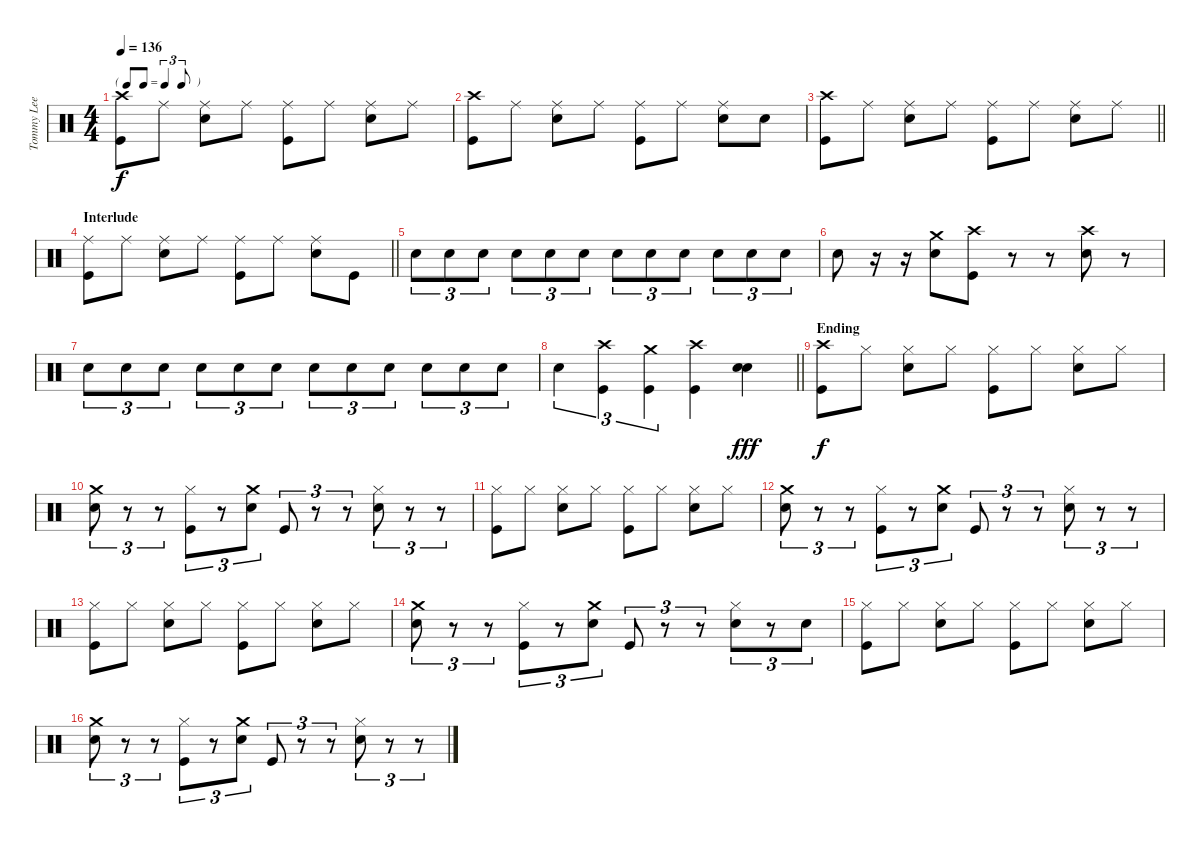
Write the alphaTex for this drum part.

\track ("Tommy Lee" "Tommy Lee") {instrument percussion}
\staff {score}
\articulation defaults
\ts (4 4)
\tf triplet8th
\tempo 136
\clef neutral
\ks c
("Crash high (hit)" "Kick (hit)").8{dy f} "Ride (middle)".8 ("Ride (middle)" "Snare (hit) 2").8 "Ride (middle)".8 ("Ride (middle)" "Kick (hit)").8 "Ride (middle)".8 ("Ride (middle)" "Snare (hit) 2").8 "Ride (middle)".8 |
("Crash high (hit)" "Kick (hit)").8 "Ride (middle)".8 ("Ride (middle)" "Snare (hit) 2").8 "Ride (middle)".8 ("Ride (middle)" "Kick (hit)").8 "Ride (middle)".8 ("Ride (middle)" "Snare (hit) 2").8 "Snare (hit) 2".8 |
\barLineRight lightlight
("Crash high (hit)" "Kick (hit)").8 "Ride (middle)".8 ("Ride (middle)" "Snare (hit) 2").8 "Ride (middle)".8 ("Ride (middle)" "Kick (hit)").8 "Ride (middle)".8 ("Ride (middle)" "Snare (hit) 2").8 "Ride (middle)".8 |
\section ("" "Interlude")
\barLineRight lightlight
("Ride (middle)" "Kick (hit)").8 "Ride (middle)".8 ("Ride (middle)" "Snare (hit) 2").8 "Ride (middle)".8 ("Ride (middle)" "Kick (hit)").8 "Ride (middle)".8 ("Ride (middle)" "Snare (hit) 2").8 "Kick (hit)".8 |
"Snare (hit) 2".8{tu (3 2)} "Snare (hit) 2".8{tu (3 2)} "Snare (hit) 2".8{tu (3 2)} "Snare (hit) 2".8{tu (3 2)} "Snare (hit) 2".8{tu (3 2)} "Snare (hit) 2".8{tu (3 2)} "Snare (hit) 2".8{tu (3 2)} "Snare (hit) 2".8{tu (3 2)} "Snare (hit) 2".8{tu (3 2)} "Snare (hit) 2".8{tu (3 2)} "Snare (hit) 2".8{tu (3 2)} "Snare (hit) 2".8{tu (3 2)} |
"Snare (hit) 2".8 r.16 r.16 ("Crash medium (hit)" "Snare (hit) 2").8 ("Crash high (hit)" "Kick (hit)").8 r.8 r.8 ("Crash high (hit)" "Snare (hit) 2").8 r.8 |
"Snare (hit) 2".8{tu (3 2)} "Snare (hit) 2".8{tu (3 2)} "Snare (hit) 2".8{tu (3 2)} "Snare (hit) 2".8{tu (3 2)} "Snare (hit) 2".8{tu (3 2)} "Snare (hit) 2".8{tu (3 2)} "Snare (hit) 2".8{tu (3 2)} "Snare (hit) 2".8{tu (3 2)} "Snare (hit) 2".8{tu (3 2)} "Snare (hit) 2".8{tu (3 2)} "Snare (hit) 2".8{tu (3 2)} "Snare (hit) 2".8{tu (3 2)} |
\barLineRight lightlight "Snare (hit) 2".4{tu (3 2)}
("Crash high (hit)" "Kick (hit)").4{tu (3 2)} ("Crash medium (hit)" "Kick (hit)").4{tu (3 2)} ("Crash high (hit)" "Kick (hit)").4 ("Snare (hit) 2" "Snare (hit) 2").4{dy fff} |
\section ("" "Ending")
("Crash high (hit)" "Kick (hit)").8{dy f} "Hi-Hat (closed)".8 ("Hi-Hat (closed)" "Snare (hit) 2").8 "Hi-Hat (closed)".8 ("Hi-Hat (closed)" "Kick (hit)").8 "Hi-Hat (closed)".8 ("Hi-Hat (closed)" "Snare (hit) 2").8 "Hi-Hat (closed)".8 |
("Crash medium (hit)" "Snare (hit) 2").8{tu (3 2)} r.8{tu (3 2)} r.8{tu (3 2)} ("Hi-Hat (closed)" "Kick (hit)").8{tu (3 2)} r.8{tu (3 2)} ("Crash medium (hit)" "Snare (hit) 2").8{tu (3 2)} "Kick (hit)".8{tu (3 2)} r.8{tu (3 2)} r.8{tu (3 2)} ("Hi-Hat (closed)" "Snare (hit) 2").8{tu (3 2)} r.8{tu (3 2)} r.8{tu (3 2)} |
("Hi-Hat (closed)" "Kick (hit)").8 "Hi-Hat (closed)".8 ("Hi-Hat (closed)" "Snare (hit) 2").8 "Hi-Hat (closed)".8 ("Hi-Hat (closed)" "Kick (hit)").8 "Hi-Hat (closed)".8 ("Hi-Hat (closed)" "Snare (hit) 2").8 "Hi-Hat (closed)".8 |
("Crash medium (hit)" "Snare (hit) 2").8{tu (3 2)} r.8{tu (3 2)} r.8{tu (3 2)} ("Hi-Hat (closed)" "Kick (hit)").8{tu (3 2)} r.8{tu (3 2)} ("Crash medium (hit)" "Snare (hit) 2").8{tu (3 2)} "Kick (hit)".8{tu (3 2)} r.8{tu (3 2)} r.8{tu (3 2)} ("Hi-Hat (closed)" "Snare (hit) 2").8{tu (3 2)} r.8{tu (3 2)} r.8{tu (3 2)} |
("Hi-Hat (closed)" "Kick (hit)").8 "Hi-Hat (closed)".8 ("Hi-Hat (closed)" "Snare (hit) 2").8 "Hi-Hat (closed)".8 ("Hi-Hat (closed)" "Kick (hit)").8 "Hi-Hat (closed)".8 ("Hi-Hat (closed)" "Snare (hit) 2").8 "Hi-Hat (closed)".8 |
("Crash medium (hit)" "Snare (hit) 2").8{tu (3 2)} r.8{tu (3 2)} r.8{tu (3 2)} ("Hi-Hat (closed)" "Kick (hit)").8{tu (3 2)} r.8{tu (3 2)} ("Crash medium (hit)" "Snare (hit) 2").8{tu (3 2)} "Kick (hit)".8{tu (3 2)} r.8{tu (3 2)} r.8{tu (3 2)} ("Hi-Hat (closed)" "Snare (hit) 2").8{tu (3 2)} r.8{tu (3 2)} "Snare (hit) 2".8{tu (3 2)} |
("Hi-Hat (closed)" "Kick (hit)").8 "Hi-Hat (closed)".8 ("Hi-Hat (closed)" "Snare (hit) 2").8 "Hi-Hat (closed)".8 ("Hi-Hat (closed)" "Kick (hit)").8 "Hi-Hat (closed)".8 ("Hi-Hat (closed)" "Snare (hit) 2").8 "Hi-Hat (closed)".8 |
("Crash medium (hit)" "Snare (hit) 2").8{tu (3 2)} r.8{tu (3 2)} r.8{tu (3 2)} ("Hi-Hat (closed)" "Kick (hit)").8{tu (3 2)} r.8{tu (3 2)} ("Crash medium (hit)" "Snare (hit) 2").8{tu (3 2)} "Kick (hit)".8{tu (3 2)} r.8{tu (3 2)} r.8{tu (3 2)} ("Hi-Hat (closed)" "Snare (hit) 2").8{tu (3 2)} r.8{tu (3 2)} r.8{tu (3 2)}
